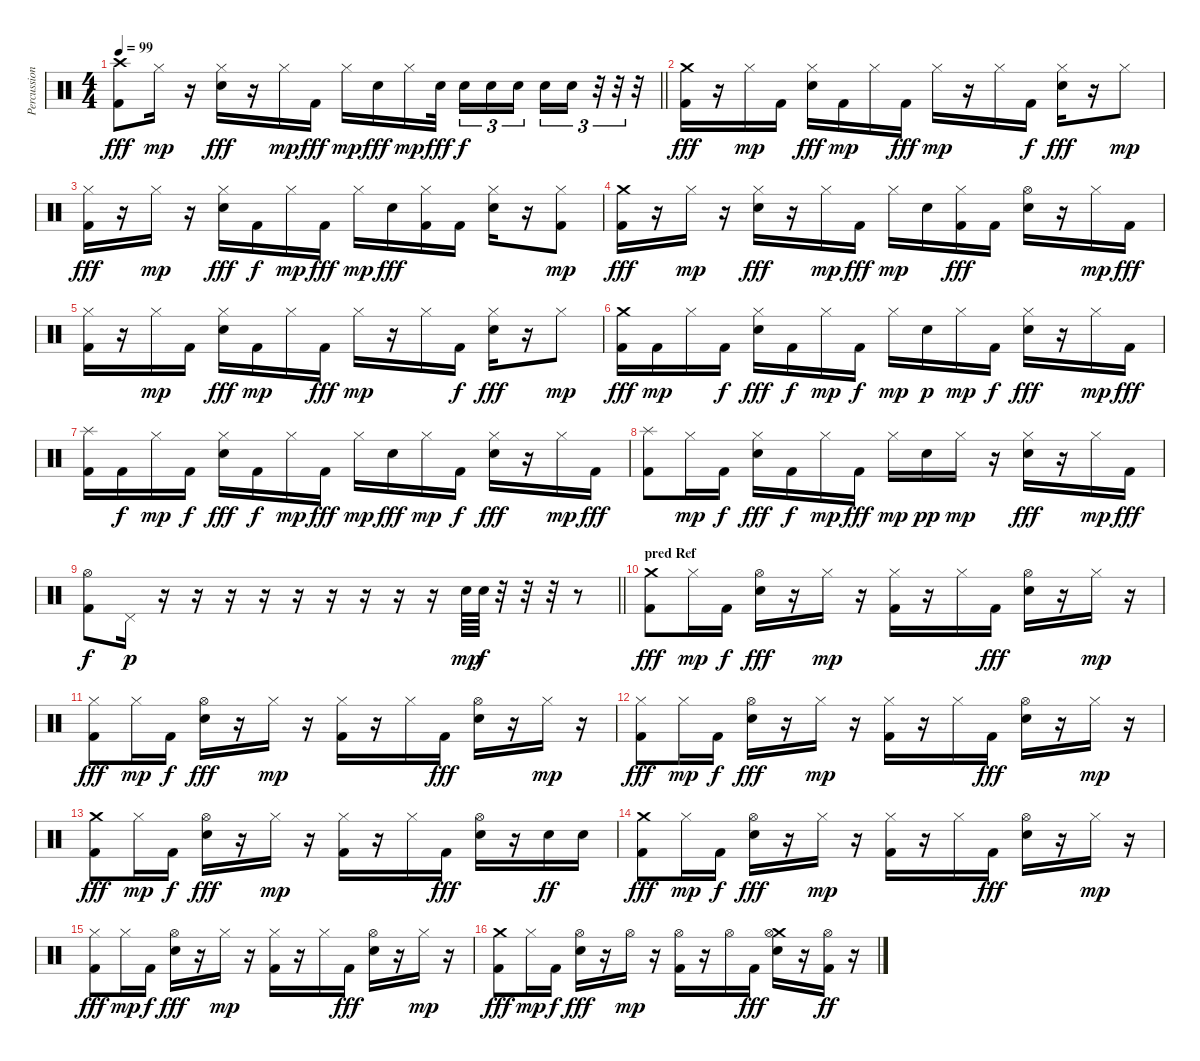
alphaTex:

\track ("Percussion" "Percussion") {instrument percussion}
\staff {score}
\articulation defaults
\ts (4 4)
\tempo 99
\clef neutral
\barLineRight lightlight
\ks c
("Crash high (hit)" "Kick (hit) 2").8{dy fff} "Hi-Hat (closed)".16{dy mp} r.16 ("Hi-Hat (closed)" "Snare (hit) 2").16{dy fff} r.16 "Hi-Hat (closed)".16{dy mp} "Kick (hit) 2".16{dy fff} "Hi-Hat (closed)".16{dy mp} "Snare (hit) 2".16{dy fff} "Hi-Hat (closed)".16{dy mp} "Snare (hit) 2".32{dy fff beam splitsecondary} "Snare (hit) 2".16{tu (3 2) dy f} "Snare (hit) 2".16{tu (3 2)} "Snare (hit) 2".16{tu (3 2) beam splitsecondary} "Snare (hit) 2".16{tu (3 2)} "Snare (hit) 2".16{tu (3 2)} r.32{tu (3 2)} r.32{tu (3 2)} r.32 |
("Crash medium (hit)" "Kick (hit) 2").16{dy fff} r.16 "Hi-Hat (closed)".16{dy mp} "Kick (hit) 2".16 ("Hi-Hat (closed)" "Snare (hit) 2").16{dy fff} "Kick (hit) 2".16{dy mp} "Hi-Hat (closed)".16 "Kick (hit) 2".16{dy fff} "Hi-Hat (closed)".16{dy mp} r.16 "Hi-Hat (closed)".16 "Kick (hit) 2".16{dy f} ("Hi-Hat (closed)" "Snare (hit) 2").16{dy fff} r.16 "Hi-Hat (closed)".8{dy mp} |
("Hi-Hat (closed)" "Kick (hit) 2").16{dy fff} r.16 "Hi-Hat (closed)".16{dy mp} r.16 ("Hi-Hat (closed)" "Snare (hit) 2").16{dy fff} "Kick (hit) 2".16{dy f} "Hi-Hat (closed)".16{dy mp} "Kick (hit) 2".16{dy fff} "Hi-Hat (closed)".16{dy mp} "Snare (hit) 2".16{dy fff} ("Hi-Hat (closed)" "Kick (hit) 2").16 "Kick (hit) 2".16 ("Hi-Hat (closed)" "Snare (hit) 2").16 r.16 ("Hi-Hat (closed)" "Kick (hit) 2").8{dy mp} |
("Crash medium (hit)" "Kick (hit) 2").16{dy fff} r.16 "Hi-Hat (closed)".16{dy mp} r.16 ("Hi-Hat (closed)" "Snare (hit) 2").16{dy fff} r.16 "Hi-Hat (closed)".16{dy mp} "Kick (hit) 2".16{dy fff} "Hi-Hat (closed)".16{dy mp} "Snare (hit) 2".16 ("Hi-Hat (closed)" "Kick (hit) 2").16{dy fff} "Kick (hit) 2".16 ("Hi-Hat (open)" "Snare (hit) 2").16 r.16 "Hi-Hat (closed)".16{dy mp} "Kick (hit) 2".16{dy fff} |
("Hi-Hat (closed)" "Kick (hit) 2").16 r.16 "Hi-Hat (closed)".16{dy mp} "Kick (hit) 2".16 ("Hi-Hat (closed)" "Snare (hit) 2").16{dy fff} "Kick (hit) 2".16{dy mp} "Hi-Hat (closed)".16 "Kick (hit) 2".16{dy fff} "Hi-Hat (closed)".16{dy mp} r.16 "Hi-Hat (closed)".16 "Kick (hit) 2".16{dy f} ("Hi-Hat (closed)" "Snare (hit) 2").16{dy fff} r.16 "Hi-Hat (closed)".8{dy mp} |
("Crash medium (hit)" "Kick (hit) 2").16{dy fff} "Kick (hit) 2".16{dy mp} "Hi-Hat (closed)".16 "Kick (hit) 2".16{dy f} ("Hi-Hat (closed)" "Snare (hit) 2").16{dy fff} "Kick (hit) 2".16{dy f} "Hi-Hat (closed)".16{dy mp} "Kick (hit) 2".16{dy f} "Hi-Hat (closed)".16{dy mp} "Snare (hit) 2".16{dy p} "Hi-Hat (closed)".16{dy mp} "Kick (hit) 2".16{dy f} ("Hi-Hat (closed)" "Snare (hit) 2").16{dy fff} r.16 "Hi-Hat (closed)".16{dy mp} "Kick (hit) 2".16{dy fff} |
("Splash (hit)" "Kick (hit) 2").16 "Kick (hit) 2".16{dy f} "Hi-Hat (closed)".16{dy mp} "Kick (hit) 2".16{dy f} ("Hi-Hat (closed)" "Snare (hit) 2").16{dy fff} "Kick (hit) 2".16{dy f} "Hi-Hat (closed)".16{dy mp} "Kick (hit) 2".16{dy fff} "Hi-Hat (closed)".16{dy mp} "Snare (hit) 2".16{dy fff} "Hi-Hat (closed)".16{dy mp} "Kick (hit) 2".16{dy f} ("Hi-Hat (closed)" "Snare (hit) 2").16{dy fff} r.16 "Hi-Hat (closed)".16{dy mp} "Kick (hit) 2".16{dy fff} |
("Splash (hit)" "Kick (hit) 2").8 "Hi-Hat (closed)".16{dy mp} "Kick (hit) 2".16{dy f} ("Hi-Hat (closed)" "Snare (hit) 2").16{dy fff} "Kick (hit) 2".16{dy f} "Hi-Hat (closed)".16{dy mp} "Kick (hit) 2".16{dy fff} "Hi-Hat (closed)".16{dy mp} "Snare (hit) 2".16{dy pp} "Hi-Hat (closed)".16{dy mp} r.16 ("Hi-Hat (closed)" "Snare (hit) 2").16{dy fff} r.16 "Hi-Hat (closed)".16{dy mp} "Kick (hit) 2".16{dy fff} |
\barLineRight lightlight
("Hi-Hat (open)" "Kick (hit) 2").8{dy f} "Pedal Hi-Hat (hit)".16{dy p} r.16 r.16 r.16 r.16 r.16 r.16 r.16 r.16 r.16 "Snare (hit) 2".64{dy mp} "Snare (hit) 2".64{dy f} r.32 r.32 r.32 r.8 |
\section ("" "pred Ref")
("Crash medium (hit)" "Kick (hit) 2").8{dy fff} "Hi-Hat (closed)".16{dy mp} "Kick (hit) 2".16{dy f} ("Hi-Hat (open)" "Snare (hit) 2").16{dy fff} r.16 "Hi-Hat (closed)".16{dy mp} r.16 ("Hi-Hat (closed)" "Kick (hit) 2").16 r.16 "Hi-Hat (closed)".16 "Kick (hit) 2".16{dy fff} ("Hi-Hat (open)" "Snare (hit) 2").16 r.16 "Hi-Hat (closed)".16{dy mp} r.16 |
("Hi-Hat (closed)" "Kick (hit) 2").8{dy fff} "Hi-Hat (closed)".16{dy mp} "Kick (hit) 2".16{dy f} ("Hi-Hat (open)" "Snare (hit) 2").16{dy fff} r.16 "Hi-Hat (closed)".16{dy mp} r.16 ("Hi-Hat (closed)" "Kick (hit) 2").16 r.16 "Hi-Hat (closed)".16 "Kick (hit) 2".16{dy fff} ("Hi-Hat (open)" "Snare (hit) 2").16 r.16 "Hi-Hat (closed)".16{dy mp} r.16 |
("Hi-Hat (closed)" "Kick (hit) 2").8{dy fff} "Hi-Hat (closed)".16{dy mp} "Kick (hit) 2".16{dy f} ("Hi-Hat (open)" "Snare (hit) 2").16{dy fff} r.16 "Hi-Hat (closed)".16{dy mp} r.16 ("Hi-Hat (closed)" "Kick (hit) 2").16 r.16 "Hi-Hat (closed)".16 "Kick (hit) 2".16{dy fff} ("Hi-Hat (open)" "Snare (hit) 2").16 r.16 "Hi-Hat (closed)".16{dy mp} r.16 |
("Crash medium (hit)" "Kick (hit) 2").8{dy fff} "Hi-Hat (closed)".16{dy mp} "Kick (hit) 2".16{dy f} ("Hi-Hat (open)" "Snare (hit) 2").16{dy fff} r.16 "Hi-Hat (closed)".16{dy mp} r.16 ("Hi-Hat (closed)" "Kick (hit) 2").16 r.16 "Hi-Hat (closed)".16 "Kick (hit) 2".16{dy fff} ("Hi-Hat (open)" "Snare (hit) 2").16 r.16 "Snare (hit) 2".16{dy ff} "Snare (hit) 2".16 |
("Crash medium (hit)" "Kick (hit) 2").8{dy fff} "Hi-Hat (closed)".16{dy mp} "Kick (hit) 2".16{dy f} ("Hi-Hat (open)" "Snare (hit) 2").16{dy fff} r.16 "Hi-Hat (closed)".16{dy mp} r.16 ("Hi-Hat (closed)" "Kick (hit) 2").16 r.16 "Hi-Hat (closed)".16 "Kick (hit) 2".16{dy fff} ("Hi-Hat (open)" "Snare (hit) 2").16 r.16 "Hi-Hat (closed)".16{dy mp} r.16 |
("Hi-Hat (closed)" "Kick (hit) 2").8{dy fff} "Hi-Hat (closed)".16{dy mp} "Kick (hit) 2".16{dy f} ("Hi-Hat (open)" "Snare (hit) 2").16{dy fff} r.16 "Hi-Hat (closed)".16{dy mp} r.16 ("Hi-Hat (closed)" "Kick (hit) 2").16 r.16 "Hi-Hat (closed)".16 "Kick (hit) 2".16{dy fff} ("Hi-Hat (open)" "Snare (hit) 2").16 r.16 "Hi-Hat (closed)".16{dy mp} r.16 |
("Crash medium (hit)" "Kick (hit) 2").8{dy fff} "Hi-Hat (closed)".16{dy mp} "Kick (hit) 2".16{dy f} ("Hi-Hat (open)" "Snare (hit) 2").16{dy fff} r.16 "Hi-Hat (open)".16{dy mp} r.16 ("Hi-Hat (open)" "Kick (hit) 2").16 r.16 "Hi-Hat (open)".16 "Kick (hit) 2".16{dy fff} ("Crash medium (hit)" "Hi-Hat (open)" "Snare (hit) 2").16 r.16 ("Hi-Hat (open)" "Kick (hit) 2").16{dy ff} r.16
